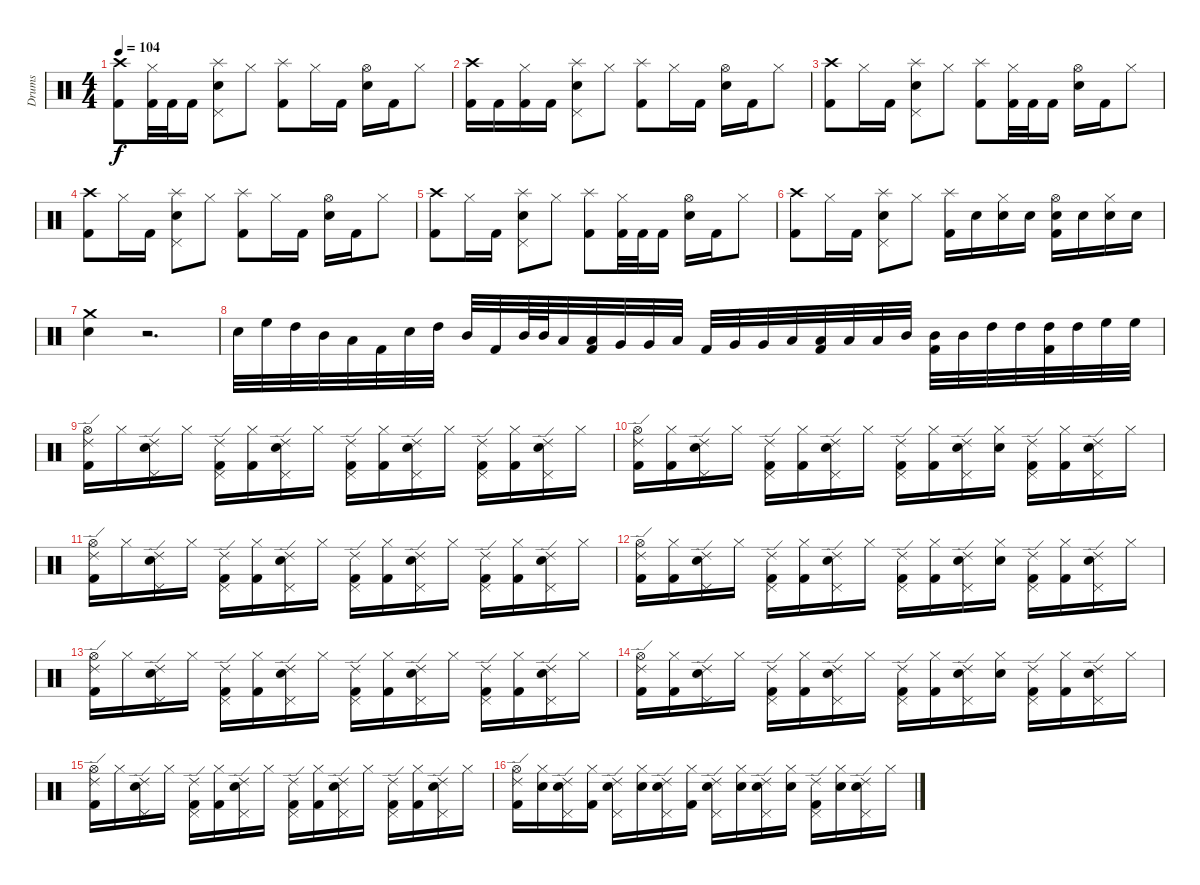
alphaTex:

\track ("Drums" "Drums") {instrument percussion}
\staff {score}
\articulation defaults
\ts (4 4)
\tempo 104
\clef neutral
\ks c
("Kick (hit) 2" "Crash high (hit)").8{dy f} ("Kick (hit) 2" "Hi-Hat (closed)").32 "Kick (hit) 2".32 "Kick (hit) 2".16 ("Snare (hit) 2" "Pedal Hi-Hat (hit)" "Splash (hit)").8 "Hi-Hat (closed)".8 ("Kick (hit) 2" "Splash (hit)").8 "Hi-Hat (closed)".16 "Kick (hit) 2".16 ("Snare (hit) 2" "Hi-Hat (open)").16 "Kick (hit) 2".16 "Hi-Hat (closed)".8 |
("Kick (hit) 2" "Crash high (hit)").16 "Kick (hit) 2".16 ("Kick (hit) 2" "Hi-Hat (closed)").16 "Kick (hit) 2".16 ("Snare (hit) 2" "Pedal Hi-Hat (hit)" "Splash (hit)").8 "Hi-Hat (closed)".8 ("Kick (hit) 2" "Splash (hit)").8 "Hi-Hat (closed)".16 "Kick (hit) 2".16 ("Snare (hit) 2" "Hi-Hat (open)").16 "Kick (hit) 2".16 "Hi-Hat (closed)".8 |
("Kick (hit) 2" "Crash high (hit)").8 "Hi-Hat (closed)".16 "Kick (hit) 2".16 ("Snare (hit) 2" "Pedal Hi-Hat (hit)" "Splash (hit)").8 "Hi-Hat (closed)".8 ("Kick (hit) 2" "Splash (hit)").8 ("Kick (hit) 2" "Hi-Hat (closed)").32 "Kick (hit) 2".32 "Kick (hit) 2".16 ("Snare (hit) 2" "Hi-Hat (open)").16 "Kick (hit) 2".16 "Hi-Hat (closed)".8 |
("Kick (hit) 2" "Crash high (hit)").8 "Hi-Hat (closed)".16 "Kick (hit) 2".16 ("Snare (hit) 2" "Pedal Hi-Hat (hit)" "Splash (hit)").8 "Hi-Hat (closed)".8 ("Kick (hit) 2" "Splash (hit)").8 "Hi-Hat (closed)".16 "Kick (hit) 2".16 ("Snare (hit) 2" "Hi-Hat (open)").16 "Kick (hit) 2".16 "Hi-Hat (closed)".8 |
("Kick (hit) 2" "Crash high (hit)").8 "Hi-Hat (closed)".16 "Kick (hit) 2".16 ("Snare (hit) 2" "Pedal Hi-Hat (hit)" "Splash (hit)").8 "Hi-Hat (closed)".8 ("Kick (hit) 2" "Splash (hit)").8 ("Kick (hit) 2" "Hi-Hat (closed)").32 "Kick (hit) 2".32 "Kick (hit) 2".16 ("Snare (hit) 2" "Hi-Hat (open)").16 "Kick (hit) 2".16 "Hi-Hat (closed)".8 |
("Kick (hit) 2" "Crash high (hit)").8 "Hi-Hat (closed)".16 "Kick (hit) 2".16 ("Snare (hit) 2" "Pedal Hi-Hat (hit)" "Splash (hit)").8 "Hi-Hat (closed)".8 ("Kick (hit) 2" "Splash (hit)").16 "Snare (hit) 2".16 ("Snare (hit) 2" "Hi-Hat (closed)").16 "Snare (hit) 2".16 ("Kick (hit) 2" "Snare (hit) 2" "Hi-Hat (open)").16 "Snare (hit) 2".16 ("Snare (hit) 2" "Hi-Hat (closed)").16 "Snare (hit) 2".16 |
("Snare (hit) 2" "Crash medium (hit)").4 r.2{d} |
"Snare (hit) 2".32 "High Floor Tom (hit)".32 "High Tom (hit)".32 "Mid Tom (hit)".32 "Low Tom (hit)".32 "Kick (hit) 2".32 "Snare (hit) 2".32 "High Tom (hit)".32 "Mid Tom (hit)".32 "Kick (hit) 2".32 "Mid Tom (hit)".64 "Mid Tom (hit)".64 "Low Tom (hit)".32 ("Kick (hit) 2" "Low Tom (hit)").32 "Very Low Tom (hit)".32 "Very Low Tom (hit)".32 "Low Floor Tom (hit)".32 "Kick (hit) 2".32 "Very Low Tom (hit)".32 "Very Low Tom (hit)".32 "Low Tom (hit)".32 ("Kick (hit) 2" "Low Tom (hit)").32 "Low Tom (hit)".32 "Low Tom (hit)".32 "Mid Tom (hit)".32 ("Kick (hit) 2" "Mid Tom (hit)").32 "Mid Tom (hit)".32 "High Tom (hit)".32 "High Tom (hit)".32 ("Kick (hit) 2" "High Tom (hit)").32 "High Tom (hit)".32 "High Floor Tom (hit)".32 "High Floor Tom (hit)".32 |
("Kick (hit) 2" "Hi-Hat (open)" "Ride (edge) 2").16 "Hi-Hat (closed)".16 ("Snare (hit) 2" "Pedal Hi-Hat (hit)" "Ride (edge) 2").16 "Hi-Hat (closed)".16 ("Kick (hit) 2" "Pedal Hi-Hat (hit)" "Ride (edge) 2").16 ("Kick (hit) 2" "Hi-Hat (closed)").16 ("Snare (hit) 2" "Pedal Hi-Hat (hit)" "Ride (edge) 2").16 "Hi-Hat (closed)".16 ("Kick (hit) 2" "Pedal Hi-Hat (hit)" "Ride (edge) 2").16 ("Kick (hit) 2" "Hi-Hat (closed)").16 ("Snare (hit) 2" "Pedal Hi-Hat (hit)" "Ride (edge) 2").16 "Hi-Hat (closed)".16 ("Kick (hit) 2" "Pedal Hi-Hat (hit)" "Ride (edge) 2").16 ("Kick (hit) 2" "Hi-Hat (closed)").16 ("Snare (hit) 2" "Pedal Hi-Hat (hit)" "Ride (edge) 2").16 "Hi-Hat (closed)".16 |
("Kick (hit) 2" "Hi-Hat (open)" "Ride (edge) 2").16 ("Kick (hit) 2" "Hi-Hat (closed)").16 ("Snare (hit) 2" "Pedal Hi-Hat (hit)" "Ride (edge) 2").16 "Hi-Hat (closed)".16 ("Kick (hit) 2" "Pedal Hi-Hat (hit)" "Ride (edge) 2").16 ("Kick (hit) 2" "Hi-Hat (closed)").16 ("Snare (hit) 2" "Pedal Hi-Hat (hit)" "Ride (edge) 2").16 "Hi-Hat (closed)".16 ("Kick (hit) 2" "Pedal Hi-Hat (hit)" "Ride (edge) 2").16 ("Kick (hit) 2" "Hi-Hat (closed)").16 ("Snare (hit) 2" "Pedal Hi-Hat (hit)" "Ride (edge) 2").16 ("Snare (hit) 2" "Hi-Hat (closed)").16 ("Kick (hit) 2" "Pedal Hi-Hat (hit)" "Ride (edge) 2").16 ("Kick (hit) 2" "Hi-Hat (closed)").16 ("Snare (hit) 2" "Pedal Hi-Hat (hit)" "Ride (edge) 2").16 "Hi-Hat (closed)".16 |
("Kick (hit) 2" "Hi-Hat (open)" "Ride (edge) 2").16 "Hi-Hat (closed)".16 ("Snare (hit) 2" "Pedal Hi-Hat (hit)" "Ride (edge) 2").16 "Hi-Hat (closed)".16 ("Kick (hit) 2" "Pedal Hi-Hat (hit)" "Ride (edge) 2").16 ("Kick (hit) 2" "Hi-Hat (closed)").16 ("Snare (hit) 2" "Pedal Hi-Hat (hit)" "Ride (edge) 2").16 "Hi-Hat (closed)".16 ("Kick (hit) 2" "Pedal Hi-Hat (hit)" "Ride (edge) 2").16 ("Kick (hit) 2" "Hi-Hat (closed)").16 ("Snare (hit) 2" "Pedal Hi-Hat (hit)" "Ride (edge) 2").16 "Hi-Hat (closed)".16 ("Kick (hit) 2" "Pedal Hi-Hat (hit)" "Ride (edge) 2").16 ("Kick (hit) 2" "Hi-Hat (closed)").16 ("Snare (hit) 2" "Pedal Hi-Hat (hit)" "Ride (edge) 2").16 "Hi-Hat (closed)".16 |
("Kick (hit) 2" "Hi-Hat (open)" "Ride (edge) 2").16 ("Kick (hit) 2" "Hi-Hat (closed)").16 ("Snare (hit) 2" "Pedal Hi-Hat (hit)" "Ride (edge) 2").16 "Hi-Hat (closed)".16 ("Kick (hit) 2" "Pedal Hi-Hat (hit)" "Ride (edge) 2").16 ("Kick (hit) 2" "Hi-Hat (closed)").16 ("Snare (hit) 2" "Pedal Hi-Hat (hit)" "Ride (edge) 2").16 "Hi-Hat (closed)".16 ("Kick (hit) 2" "Pedal Hi-Hat (hit)" "Ride (edge) 2").16 ("Kick (hit) 2" "Hi-Hat (closed)").16 ("Snare (hit) 2" "Pedal Hi-Hat (hit)" "Ride (edge) 2").16 ("Snare (hit) 2" "Hi-Hat (closed)").16 ("Kick (hit) 2" "Pedal Hi-Hat (hit)" "Ride (edge) 2").16 ("Kick (hit) 2" "Hi-Hat (closed)").16 ("Snare (hit) 2" "Pedal Hi-Hat (hit)" "Ride (edge) 2").16 "Hi-Hat (closed)".16 |
("Kick (hit) 2" "Hi-Hat (open)" "Ride (edge) 2").16 "Hi-Hat (closed)".16 ("Snare (hit) 2" "Pedal Hi-Hat (hit)" "Ride (edge) 2").16 "Hi-Hat (closed)".16 ("Kick (hit) 2" "Pedal Hi-Hat (hit)" "Ride (edge) 2").16 ("Kick (hit) 2" "Hi-Hat (closed)").16 ("Snare (hit) 2" "Pedal Hi-Hat (hit)" "Ride (edge) 2").16 "Hi-Hat (closed)".16 ("Kick (hit) 2" "Pedal Hi-Hat (hit)" "Ride (edge) 2").16 ("Kick (hit) 2" "Hi-Hat (closed)").16 ("Snare (hit) 2" "Pedal Hi-Hat (hit)" "Ride (edge) 2").16 "Hi-Hat (closed)".16 ("Kick (hit) 2" "Pedal Hi-Hat (hit)" "Ride (edge) 2").16 ("Kick (hit) 2" "Hi-Hat (closed)").16 ("Snare (hit) 2" "Pedal Hi-Hat (hit)" "Ride (edge) 2").16 "Hi-Hat (closed)".16 |
("Kick (hit) 2" "Hi-Hat (open)" "Ride (edge) 2").16 ("Kick (hit) 2" "Hi-Hat (closed)").16 ("Snare (hit) 2" "Pedal Hi-Hat (hit)" "Ride (edge) 2").16 "Hi-Hat (closed)".16 ("Kick (hit) 2" "Pedal Hi-Hat (hit)" "Ride (edge) 2").16 ("Kick (hit) 2" "Hi-Hat (closed)").16 ("Snare (hit) 2" "Pedal Hi-Hat (hit)" "Ride (edge) 2").16 "Hi-Hat (closed)".16 ("Kick (hit) 2" "Pedal Hi-Hat (hit)" "Ride (edge) 2").16 ("Kick (hit) 2" "Hi-Hat (closed)").16 ("Snare (hit) 2" "Pedal Hi-Hat (hit)" "Ride (edge) 2").16 ("Snare (hit) 2" "Hi-Hat (closed)").16 ("Kick (hit) 2" "Pedal Hi-Hat (hit)" "Ride (edge) 2").16 ("Kick (hit) 2" "Hi-Hat (closed)").16 ("Snare (hit) 2" "Pedal Hi-Hat (hit)" "Ride (edge) 2").16 "Hi-Hat (closed)".16 |
("Kick (hit) 2" "Hi-Hat (open)" "Ride (edge) 2").16 "Hi-Hat (closed)".16 ("Snare (hit) 2" "Pedal Hi-Hat (hit)" "Ride (edge) 2").16 "Hi-Hat (closed)".16 ("Kick (hit) 2" "Pedal Hi-Hat (hit)" "Ride (edge) 2").16 ("Kick (hit) 2" "Hi-Hat (closed)").16 ("Snare (hit) 2" "Pedal Hi-Hat (hit)" "Ride (edge) 2").16 "Hi-Hat (closed)".16 ("Kick (hit) 2" "Pedal Hi-Hat (hit)" "Ride (edge) 2").16 ("Kick (hit) 2" "Hi-Hat (closed)").16 ("Snare (hit) 2" "Pedal Hi-Hat (hit)" "Ride (edge) 2").16 "Hi-Hat (closed)".16 ("Kick (hit) 2" "Pedal Hi-Hat (hit)" "Ride (edge) 2").16 ("Kick (hit) 2" "Hi-Hat (closed)").16 ("Snare (hit) 2" "Pedal Hi-Hat (hit)" "Ride (edge) 2").16 "Hi-Hat (closed)".16 |
("Kick (hit) 2" "Hi-Hat (open)" "Ride (edge) 2").16 ("Snare (hit) 2" "Hi-Hat (closed)").16 ("Snare (hit) 2" "Pedal Hi-Hat (hit)" "Ride (edge) 2").16 ("Kick (hit) 2" "Hi-Hat (closed)").16 ("Snare (hit) 2" "Pedal Hi-Hat (hit)" "Ride (edge) 2").16 ("Snare (hit) 2" "Hi-Hat (closed)").16 ("Snare (hit) 2" "Pedal Hi-Hat (hit)" "Ride (edge) 2").16 ("Kick (hit) 2" "Hi-Hat (closed)").16 ("Snare (hit) 2" "Pedal Hi-Hat (hit)" "Ride (edge) 2").16 ("Snare (hit) 2" "Hi-Hat (closed)").16 ("Snare (hit) 2" "Pedal Hi-Hat (hit)" "Ride (edge) 2").16 ("Snare (hit) 2" "Hi-Hat (closed)").16 ("Kick (hit) 2" "Pedal Hi-Hat (hit)" "Ride (edge) 2").16 ("Snare (hit) 2" "Hi-Hat (closed)").16 ("Snare (hit) 2" "Pedal Hi-Hat (hit)" "Ride (edge) 2").16 "Hi-Hat (closed)".16
